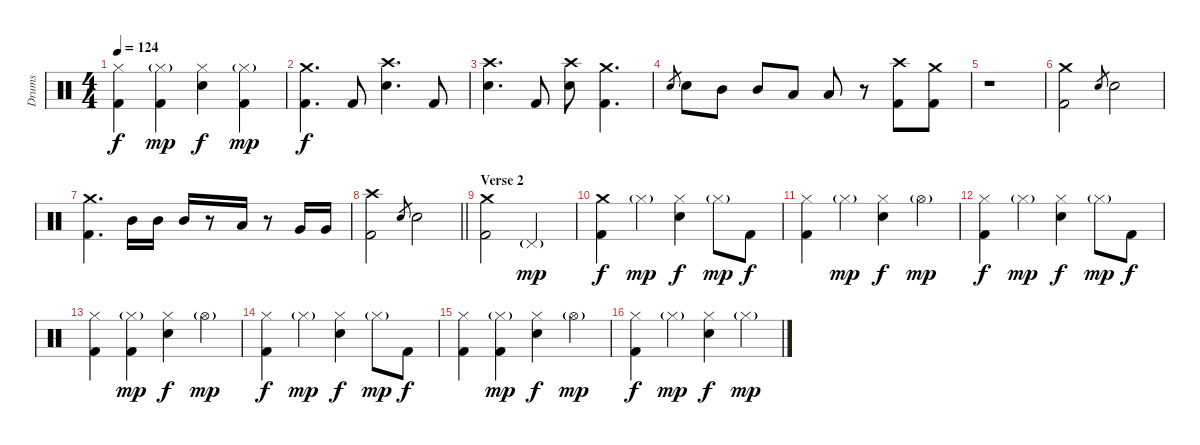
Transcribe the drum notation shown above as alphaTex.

\track ("Drums" "Drums") {instrument percussion}
\staff {score}
\articulation defaults
\ts (4 4)
\tempo 124
\clef neutral
\ks c
("Hi-Hat (closed)" "Kick (hit) 2").4{dy f} ("Hi-Hat (closed)"{g} "Kick (hit) 2").4{dy mp} ("Hi-Hat (closed)" "Snare (hit) 2").4{dy f} ("Hi-Hat (closed)"{g} "Kick (hit) 2").4{dy mp} |
("Crash medium (hit)" "Kick (hit) 2").4{d dy f} "Kick (hit) 2".8 ("Crash high (hit)" "Snare (hit) 2").4{d} "Kick (hit) 2".8 |
("Crash high (hit)" "Snare (hit) 2").4{d} "Kick (hit) 2".8 ("Crash high (hit)" "Snare (hit) 2").8 ("Crash medium (hit)" "Kick (hit) 2").4{d} |
"Snare (hit) 2".8{gr} "Snare (hit) 2".8 "Mid Tom (hit)".8 "Mid Tom (hit)".8 "Low Tom (hit)".8 "Low Tom (hit)".8 r.8 ("Crash high (hit)" "Kick (hit) 2").8 ("Crash medium (hit)" "Kick (hit) 2").8 |
r.1 |
("Crash medium (hit)" "Kick (hit) 2").2 "Snare (hit) 2".8{gr} "Snare (hit) 2".2 |
("Crash medium (hit)" "Kick (hit) 2").4{d} "Mid Tom (hit)".16 "Mid Tom (hit)".16 "Mid Tom (hit)".16 r.8 "Low Tom (hit)".16 r.8 "Very Low Tom (hit)".16 "Very Low Tom (hit)".16 |
\barLineRight lightlight
("Crash high (hit)" "Kick (hit) 2").2 "Snare (hit) 2".8{gr} "Snare (hit) 2".2 |
\section ("" "Verse 2")
("Crash medium (hit)" "Kick (hit) 2").2 "Pedal Hi-Hat (hit)"{g}.2{dy mp} |
("Crash medium (hit)" "Kick (hit) 2").4{dy f} "Hi-Hat (closed)"{g}.4{dy mp} ("Hi-Hat (closed)" "Snare (hit) 2").4{dy f} "Hi-Hat (closed)"{g}.8{dy mp} "Kick (hit) 2".8{dy f} |
("Hi-Hat (closed)" "Kick (hit) 2").4 "Hi-Hat (closed)"{g}.4{dy mp} ("Hi-Hat (closed)" "Snare (hit) 2").4{dy f} "Hi-Hat (open)"{g}.4{dy mp} |
("Hi-Hat (closed)" "Kick (hit) 2").4{dy f} "Hi-Hat (closed)"{g}.4{dy mp} ("Hi-Hat (closed)" "Snare (hit) 2").4{dy f} "Hi-Hat (closed)"{g}.8{dy mp} "Kick (hit) 2".8{dy f} |
("Hi-Hat (closed)" "Kick (hit) 2").4 ("Hi-Hat (closed)"{g} "Kick (hit) 2").4{dy mp} ("Hi-Hat (closed)" "Snare (hit) 2").4{dy f} "Hi-Hat (open)"{g}.4{dy mp} |
("Hi-Hat (closed)" "Kick (hit) 2").4{dy f} "Hi-Hat (closed)"{g}.4{dy mp} ("Hi-Hat (closed)" "Snare (hit) 2").4{dy f} "Hi-Hat (closed)"{g}.8{dy mp} "Kick (hit) 2".8{dy f} |
("Hi-Hat (closed)" "Kick (hit) 2").4 ("Hi-Hat (closed)"{g} "Kick (hit) 2").4{dy mp} ("Hi-Hat (closed)" "Snare (hit) 2").4{dy f} "Hi-Hat (open)"{g}.4{dy mp} |
("Hi-Hat (closed)" "Kick (hit) 2").4{dy f} "Hi-Hat (closed)"{g}.4{dy mp} ("Hi-Hat (closed)" "Snare (hit) 2").4{dy f} "Hi-Hat (closed)"{g}.4{dy mp}
